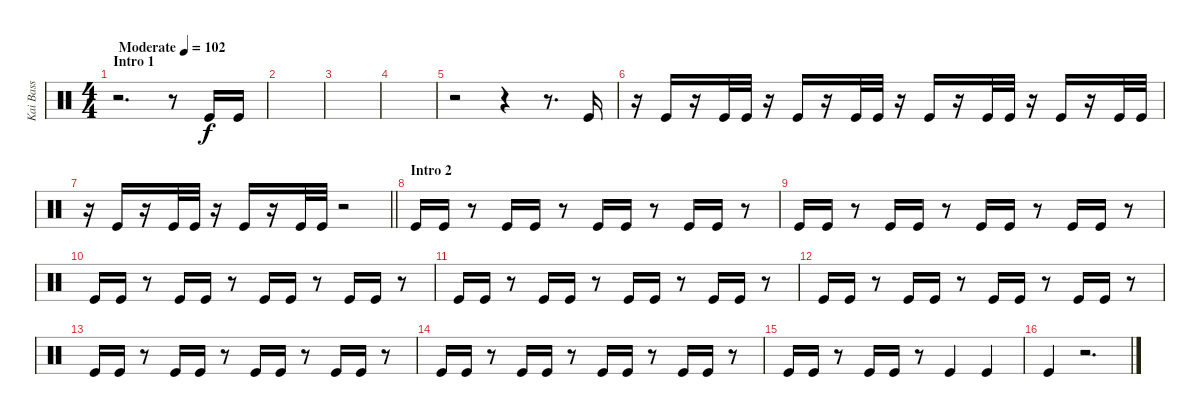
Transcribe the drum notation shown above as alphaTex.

\track ("Kai Bass" "Kai Bass") {instrument percussion}
\staff {score}
\articulation defaults
\ts (4 4)
\section ("" "Intro 1")
\tempo (102 "Moderate")
\clef neutral
\ks c
r.2{d dy f} r.8 "Kick (hit)".16 "Kick (hit)".16 |
|
|
|
r.2 r.4 r.8{d} "Kick (hit)".16 |
r.16 "Kick (hit)".16 r.16 "Kick (hit)".32 "Kick (hit)".32 r.16 "Kick (hit)".16 r.16 "Kick (hit)".32 "Kick (hit)".32 r.16 "Kick (hit)".16 r.16 "Kick (hit)".32 "Kick (hit)".32 r.16 "Kick (hit)".16 r.16 "Kick (hit)".32 "Kick (hit)".32 |
\barLineRight lightlight
r.16 "Kick (hit)".16 r.16 "Kick (hit)".32 "Kick (hit)".32 r.16 "Kick (hit)".16 r.16 "Kick (hit)".32 "Kick (hit)".32 r.2 |
\section ("" "Intro 2")
"Kick (hit)".16 "Kick (hit)".16 r.8 "Kick (hit)".16 "Kick (hit)".16 r.8 "Kick (hit)".16 "Kick (hit)".16 r.8 "Kick (hit)".16 "Kick (hit)".16 r.8 |
"Kick (hit)".16 "Kick (hit)".16 r.8 "Kick (hit)".16 "Kick (hit)".16 r.8 "Kick (hit)".16 "Kick (hit)".16 r.8 "Kick (hit)".16 "Kick (hit)".16 r.8 |
"Kick (hit)".16 "Kick (hit)".16 r.8 "Kick (hit)".16 "Kick (hit)".16 r.8 "Kick (hit)".16 "Kick (hit)".16 r.8 "Kick (hit)".16 "Kick (hit)".16 r.8 |
"Kick (hit)".16 "Kick (hit)".16 r.8 "Kick (hit)".16 "Kick (hit)".16 r.8 "Kick (hit)".16 "Kick (hit)".16 r.8 "Kick (hit)".16 "Kick (hit)".16 r.8 |
"Kick (hit)".16 "Kick (hit)".16 r.8 "Kick (hit)".16 "Kick (hit)".16 r.8 "Kick (hit)".16 "Kick (hit)".16 r.8 "Kick (hit)".16 "Kick (hit)".16 r.8 |
"Kick (hit)".16 "Kick (hit)".16 r.8 "Kick (hit)".16 "Kick (hit)".16 r.8 "Kick (hit)".16 "Kick (hit)".16 r.8 "Kick (hit)".16 "Kick (hit)".16 r.8 |
"Kick (hit)".16 "Kick (hit)".16 r.8 "Kick (hit)".16 "Kick (hit)".16 r.8 "Kick (hit)".16 "Kick (hit)".16 r.8 "Kick (hit)".16 "Kick (hit)".16 r.8 |
"Kick (hit)".16 "Kick (hit)".16 r.8 "Kick (hit)".16 "Kick (hit)".16 r.8 "Kick (hit)".4 "Kick (hit)".4 |
"Kick (hit)".4 r.2{d}
